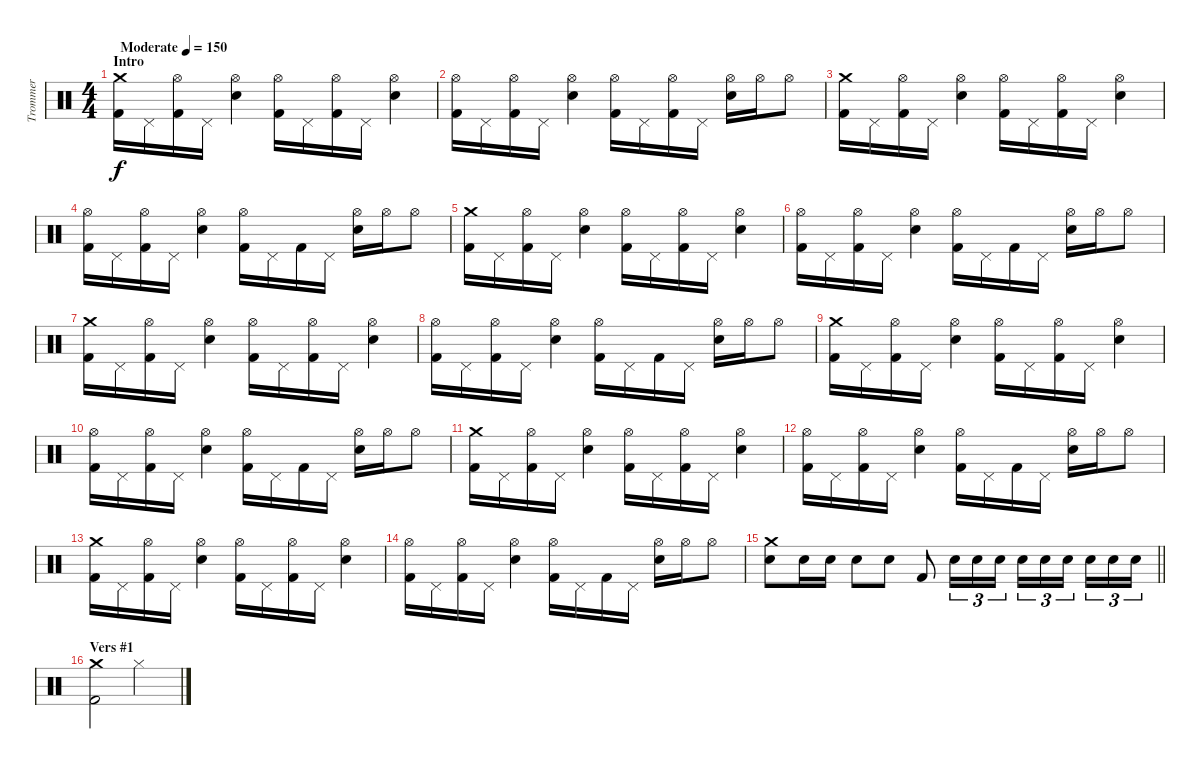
\track ("Trommer" "Trommer") {instrument percussion}
\staff {score}
\articulation defaults
\ts (4 4)
\section ("" "Intro")
\tempo (150 "Moderate")
\clef neutral
\ks c
("Crash medium (hit)" "Kick (hit) 2").16{dy f} "Pedal Hi-Hat (hit)".16 ("Hi-Hat (open)" "Kick (hit) 2").16 "Pedal Hi-Hat (hit)".16 ("Hi-Hat (open)" "Snare (hit) 2").4 ("Hi-Hat (open)" "Kick (hit) 2").16 "Pedal Hi-Hat (hit)".16 ("Hi-Hat (open)" "Kick (hit) 2").16 "Pedal Hi-Hat (hit)".16 ("Hi-Hat (open)" "Snare (hit) 2").4 |
("Hi-Hat (open)" "Kick (hit) 2").16 "Pedal Hi-Hat (hit)".16 ("Hi-Hat (open)" "Kick (hit) 2").16 "Pedal Hi-Hat (hit)".16 ("Hi-Hat (open)" "Snare (hit) 2").4 ("Hi-Hat (open)" "Kick (hit) 2").16 "Pedal Hi-Hat (hit)".16 ("Hi-Hat (open)" "Kick (hit) 2").16 "Pedal Hi-Hat (hit)".16 ("Hi-Hat (open)" "Snare (hit) 2").16 "Hi-Hat (open)".16 "Hi-Hat (open)".8 |
("Crash medium (hit)" "Kick (hit) 2").16 "Pedal Hi-Hat (hit)".16 ("Hi-Hat (open)" "Kick (hit) 2").16 "Pedal Hi-Hat (hit)".16 ("Hi-Hat (open)" "Snare (hit) 2").4 ("Hi-Hat (open)" "Kick (hit) 2").16 "Pedal Hi-Hat (hit)".16 ("Hi-Hat (open)" "Kick (hit) 2").16 "Pedal Hi-Hat (hit)".16 ("Hi-Hat (open)" "Snare (hit) 2").4 |
("Hi-Hat (open)" "Kick (hit) 2").16 "Pedal Hi-Hat (hit)".16 ("Hi-Hat (open)" "Kick (hit) 2").16 "Pedal Hi-Hat (hit)".16 ("Hi-Hat (open)" "Snare (hit) 2").4 ("Hi-Hat (open)" "Kick (hit) 2").16 "Pedal Hi-Hat (hit)".16 "Kick (hit) 2".16 "Pedal Hi-Hat (hit)".16 ("Hi-Hat (open)" "Snare (hit) 2").16 "Hi-Hat (open)".16 "Hi-Hat (open)".8 |
("Crash medium (hit)" "Kick (hit) 2").16 "Pedal Hi-Hat (hit)".16 ("Hi-Hat (open)" "Kick (hit) 2").16 "Pedal Hi-Hat (hit)".16 ("Hi-Hat (open)" "Snare (hit) 2").4 ("Hi-Hat (open)" "Kick (hit) 2").16 "Pedal Hi-Hat (hit)".16 ("Hi-Hat (open)" "Kick (hit) 2").16 "Pedal Hi-Hat (hit)".16 ("Hi-Hat (open)" "Snare (hit) 2").4 |
("Hi-Hat (open)" "Kick (hit) 2").16 "Pedal Hi-Hat (hit)".16 ("Hi-Hat (open)" "Kick (hit) 2").16 "Pedal Hi-Hat (hit)".16 ("Hi-Hat (open)" "Snare (hit) 2").4 ("Hi-Hat (open)" "Kick (hit) 2").16 "Pedal Hi-Hat (hit)".16 "Kick (hit) 2".16 "Pedal Hi-Hat (hit)".16 ("Hi-Hat (open)" "Snare (hit) 2").16 "Hi-Hat (open)".16 "Hi-Hat (open)".8 |
("Crash medium (hit)" "Kick (hit) 2").16 "Pedal Hi-Hat (hit)".16 ("Hi-Hat (open)" "Kick (hit) 2").16 "Pedal Hi-Hat (hit)".16 ("Hi-Hat (open)" "Snare (hit) 2").4 ("Hi-Hat (open)" "Kick (hit) 2").16 "Pedal Hi-Hat (hit)".16 ("Hi-Hat (open)" "Kick (hit) 2").16 "Pedal Hi-Hat (hit)".16 ("Hi-Hat (open)" "Snare (hit) 2").4 |
("Hi-Hat (open)" "Kick (hit) 2").16 "Pedal Hi-Hat (hit)".16 ("Hi-Hat (open)" "Kick (hit) 2").16 "Pedal Hi-Hat (hit)".16 ("Hi-Hat (open)" "Snare (hit) 2").4 ("Hi-Hat (open)" "Kick (hit) 2").16 "Pedal Hi-Hat (hit)".16 "Kick (hit) 2".16 "Pedal Hi-Hat (hit)".16 ("Hi-Hat (open)" "Snare (hit) 2").16 "Hi-Hat (open)".16 "Hi-Hat (open)".8 |
("Crash medium (hit)" "Kick (hit) 2").16 "Pedal Hi-Hat (hit)".16 ("Hi-Hat (open)" "Kick (hit) 2").16 "Pedal Hi-Hat (hit)".16 ("Hi-Hat (open)" "Snare (hit) 2").4 ("Hi-Hat (open)" "Kick (hit) 2").16 "Pedal Hi-Hat (hit)".16 ("Hi-Hat (open)" "Kick (hit) 2").16 "Pedal Hi-Hat (hit)".16 ("Hi-Hat (open)" "Snare (hit) 2").4 |
("Hi-Hat (open)" "Kick (hit) 2").16 "Pedal Hi-Hat (hit)".16 ("Hi-Hat (open)" "Kick (hit) 2").16 "Pedal Hi-Hat (hit)".16 ("Hi-Hat (open)" "Snare (hit) 2").4 ("Hi-Hat (open)" "Kick (hit) 2").16 "Pedal Hi-Hat (hit)".16 "Kick (hit) 2".16 "Pedal Hi-Hat (hit)".16 ("Hi-Hat (open)" "Snare (hit) 2").16 "Hi-Hat (open)".16 "Hi-Hat (open)".8 |
("Crash medium (hit)" "Kick (hit) 2").16 "Pedal Hi-Hat (hit)".16 ("Hi-Hat (open)" "Kick (hit) 2").16 "Pedal Hi-Hat (hit)".16 ("Hi-Hat (open)" "Snare (hit) 2").4 ("Hi-Hat (open)" "Kick (hit) 2").16 "Pedal Hi-Hat (hit)".16 ("Hi-Hat (open)" "Kick (hit) 2").16 "Pedal Hi-Hat (hit)".16 ("Hi-Hat (open)" "Snare (hit) 2").4 |
("Hi-Hat (open)" "Kick (hit) 2").16 "Pedal Hi-Hat (hit)".16 ("Hi-Hat (open)" "Kick (hit) 2").16 "Pedal Hi-Hat (hit)".16 ("Hi-Hat (open)" "Snare (hit) 2").4 ("Hi-Hat (open)" "Kick (hit) 2").16 "Pedal Hi-Hat (hit)".16 "Kick (hit) 2".16 "Pedal Hi-Hat (hit)".16 ("Hi-Hat (open)" "Snare (hit) 2").16 "Hi-Hat (open)".16 "Hi-Hat (open)".8 |
("Crash medium (hit)" "Kick (hit) 2").16 "Pedal Hi-Hat (hit)".16 ("Hi-Hat (open)" "Kick (hit) 2").16 "Pedal Hi-Hat (hit)".16 ("Hi-Hat (open)" "Snare (hit) 2").4 ("Hi-Hat (open)" "Kick (hit) 2").16 "Pedal Hi-Hat (hit)".16 ("Hi-Hat (open)" "Kick (hit) 2").16 "Pedal Hi-Hat (hit)".16 ("Hi-Hat (open)" "Snare (hit) 2").4 |
("Hi-Hat (open)" "Kick (hit) 2").16 "Pedal Hi-Hat (hit)".16 ("Hi-Hat (open)" "Kick (hit) 2").16 "Pedal Hi-Hat (hit)".16 ("Hi-Hat (open)" "Snare (hit) 2").4 ("Hi-Hat (open)" "Kick (hit) 2").16 "Pedal Hi-Hat (hit)".16 "Kick (hit) 2".16 "Pedal Hi-Hat (hit)".16 ("Hi-Hat (open)" "Snare (hit) 2").16 "Hi-Hat (open)".16 "Hi-Hat (open)".8 |
\barLineRight lightlight
("Crash medium (hit)" "Snare (hit) 2").8 "Snare (hit) 2".16 "Snare (hit) 2".16 "Snare (hit) 2".8 "Snare (hit) 2".8 "Kick (hit) 2".8 "Snare (hit) 2".16{tu (3 2)} "Snare (hit) 2".16{tu (3 2)} "Snare (hit) 2".16{tu (3 2)} "Snare (hit) 2".16{tu (3 2)} "Snare (hit) 2".16{tu (3 2)} "Snare (hit) 2".16{tu (3 2) beam splitsecondary} "Snare (hit) 2".16{tu (3 2)} "Snare (hit) 2".16{tu (3 2)} "Snare (hit) 2".16{tu (3 2)} |
\section ("" "Vers #1")
("Crash medium (hit)" "Kick (hit) 2").2 "Hi-Hat (closed)".2
